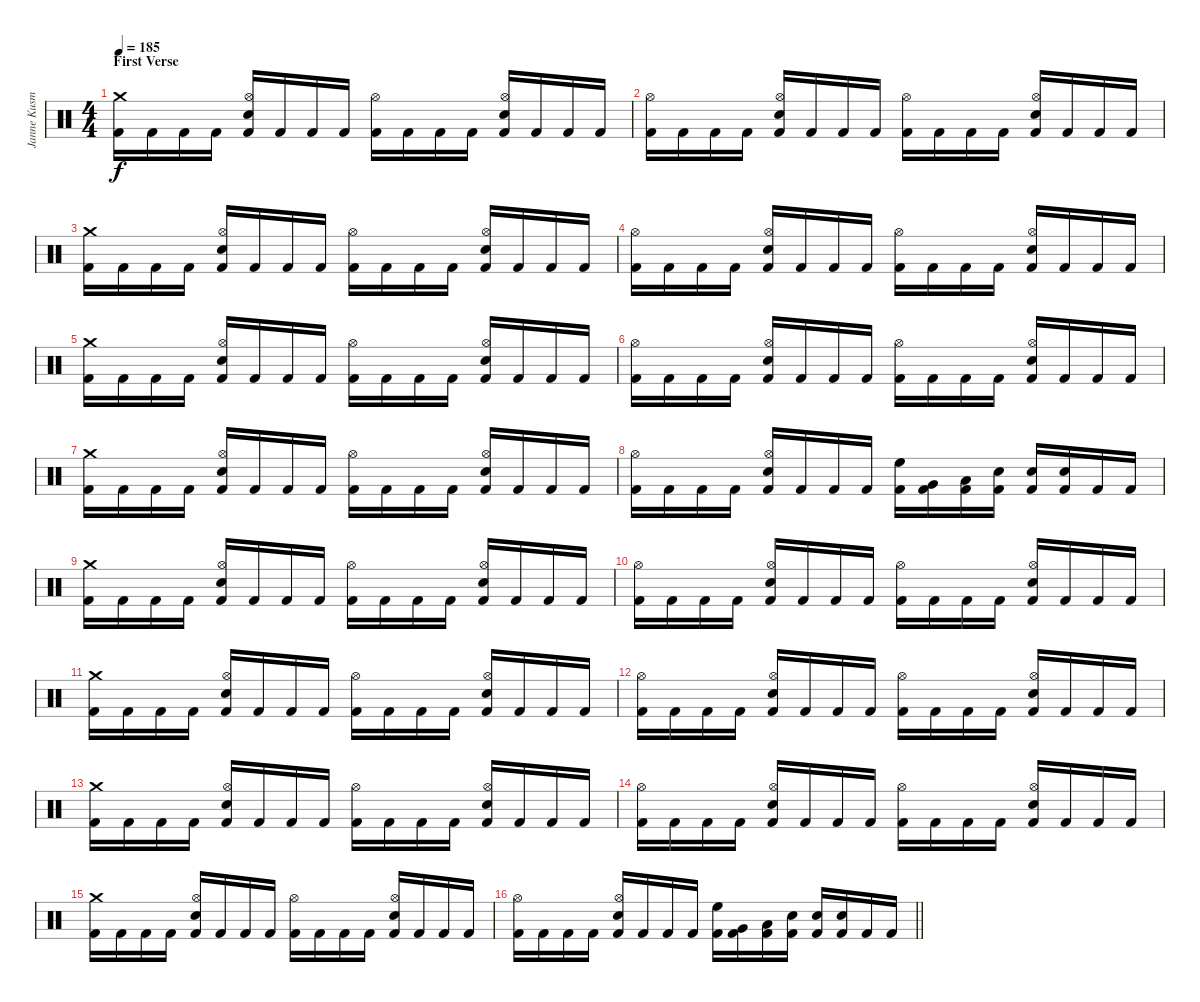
\track ("Janne Kusmin" "Janne Kusm") {instrument percussion}
\staff {score}
\articulation defaults
\ts (4 4)
\section ("" "First Verse")
\tempo 185
\clef neutral
\ks c
("Crash medium (hit)" "Kick (hit) 2").16{dy f} "Kick (hit) 2".16 "Kick (hit) 2".16 "Kick (hit) 2".16 ("Hi-Hat (open)" "Electric Snare (hit)" "Kick (hit) 2").16 "Kick (hit) 2".16 "Kick (hit) 2".16 "Kick (hit) 2".16 ("Hi-Hat (open)" "Kick (hit) 2").16 "Kick (hit) 2".16 "Kick (hit) 2".16 "Kick (hit) 2".16 ("Hi-Hat (open)" "Electric Snare (hit)" "Kick (hit) 2").16 "Kick (hit) 2".16 "Kick (hit) 2".16 "Kick (hit) 2".16 |
("Hi-Hat (open)" "Kick (hit) 2").16 "Kick (hit) 2".16 "Kick (hit) 2".16 "Kick (hit) 2".16 ("Hi-Hat (open)" "Electric Snare (hit)" "Kick (hit) 2").16 "Kick (hit) 2".16 "Kick (hit) 2".16 "Kick (hit) 2".16 ("Hi-Hat (open)" "Kick (hit) 2").16 "Kick (hit) 2".16 "Kick (hit) 2".16 "Kick (hit) 2".16 ("Hi-Hat (open)" "Electric Snare (hit)" "Kick (hit) 2").16 "Kick (hit) 2".16 "Kick (hit) 2".16 "Kick (hit) 2".16 |
("Crash medium (hit)" "Kick (hit) 2").16 "Kick (hit) 2".16 "Kick (hit) 2".16 "Kick (hit) 2".16 ("Hi-Hat (open)" "Electric Snare (hit)" "Kick (hit) 2").16 "Kick (hit) 2".16 "Kick (hit) 2".16 "Kick (hit) 2".16 ("Hi-Hat (open)" "Kick (hit) 2").16 "Kick (hit) 2".16 "Kick (hit) 2".16 "Kick (hit) 2".16 ("Hi-Hat (open)" "Electric Snare (hit)" "Kick (hit) 2").16 "Kick (hit) 2".16 "Kick (hit) 2".16 "Kick (hit) 2".16 |
("Hi-Hat (open)" "Kick (hit) 2").16 "Kick (hit) 2".16 "Kick (hit) 2".16 "Kick (hit) 2".16 ("Hi-Hat (open)" "Electric Snare (hit)" "Kick (hit) 2").16 "Kick (hit) 2".16 "Kick (hit) 2".16 "Kick (hit) 2".16 ("Hi-Hat (open)" "Kick (hit) 2").16 "Kick (hit) 2".16 "Kick (hit) 2".16 "Kick (hit) 2".16 ("Hi-Hat (open)" "Electric Snare (hit)" "Kick (hit) 2").16 "Kick (hit) 2".16 "Kick (hit) 2".16 "Kick (hit) 2".16 |
("Crash medium (hit)" "Kick (hit) 2").16 "Kick (hit) 2".16 "Kick (hit) 2".16 "Kick (hit) 2".16 ("Hi-Hat (open)" "Electric Snare (hit)" "Kick (hit) 2").16 "Kick (hit) 2".16 "Kick (hit) 2".16 "Kick (hit) 2".16 ("Hi-Hat (open)" "Kick (hit) 2").16 "Kick (hit) 2".16 "Kick (hit) 2".16 "Kick (hit) 2".16 ("Hi-Hat (open)" "Electric Snare (hit)" "Kick (hit) 2").16 "Kick (hit) 2".16 "Kick (hit) 2".16 "Kick (hit) 2".16 |
("Hi-Hat (open)" "Kick (hit) 2").16 "Kick (hit) 2".16 "Kick (hit) 2".16 "Kick (hit) 2".16 ("Hi-Hat (open)" "Electric Snare (hit)" "Kick (hit) 2").16 "Kick (hit) 2".16 "Kick (hit) 2".16 "Kick (hit) 2".16 ("Hi-Hat (open)" "Kick (hit) 2").16 "Kick (hit) 2".16 "Kick (hit) 2".16 "Kick (hit) 2".16 ("Hi-Hat (open)" "Electric Snare (hit)" "Kick (hit) 2").16 "Kick (hit) 2".16 "Kick (hit) 2".16 "Kick (hit) 2".16 |
("Crash medium (hit)" "Kick (hit) 2").16 "Kick (hit) 2".16 "Kick (hit) 2".16 "Kick (hit) 2".16 ("Hi-Hat (open)" "Electric Snare (hit)" "Kick (hit) 2").16 "Kick (hit) 2".16 "Kick (hit) 2".16 "Kick (hit) 2".16 ("Hi-Hat (open)" "Kick (hit) 2").16 "Kick (hit) 2".16 "Kick (hit) 2".16 "Kick (hit) 2".16 ("Hi-Hat (open)" "Electric Snare (hit)" "Kick (hit) 2").16 "Kick (hit) 2".16 "Kick (hit) 2".16 "Kick (hit) 2".16 |
("Hi-Hat (open)" "Kick (hit) 2").16 "Kick (hit) 2".16 "Kick (hit) 2".16 "Kick (hit) 2".16 ("Hi-Hat (open)" "Electric Snare (hit)" "Kick (hit) 2").16 "Kick (hit) 2".16 "Kick (hit) 2".16 "Kick (hit) 2".16 ("High Floor Tom (hit)" "Kick (hit) 2").16 ("Very Low Tom (hit)" "Kick (hit) 2").16 ("Low Floor Tom (hit)" "Kick (hit) 2").16 ("Electric Snare (hit)" "Kick (hit) 2").16 ("Electric Snare (hit)" "Kick (hit) 2").16 ("Electric Snare (hit)" "Kick (hit) 2").16 "Kick (hit) 2".16 "Kick (hit) 2".16 |
("Crash medium (hit)" "Kick (hit) 2").16 "Kick (hit) 2".16 "Kick (hit) 2".16 "Kick (hit) 2".16 ("Hi-Hat (open)" "Electric Snare (hit)" "Kick (hit) 2").16 "Kick (hit) 2".16 "Kick (hit) 2".16 "Kick (hit) 2".16 ("Hi-Hat (open)" "Kick (hit) 2").16 "Kick (hit) 2".16 "Kick (hit) 2".16 "Kick (hit) 2".16 ("Hi-Hat (open)" "Electric Snare (hit)" "Kick (hit) 2").16 "Kick (hit) 2".16 "Kick (hit) 2".16 "Kick (hit) 2".16 |
("Hi-Hat (open)" "Kick (hit) 2").16 "Kick (hit) 2".16 "Kick (hit) 2".16 "Kick (hit) 2".16 ("Hi-Hat (open)" "Electric Snare (hit)" "Kick (hit) 2").16 "Kick (hit) 2".16 "Kick (hit) 2".16 "Kick (hit) 2".16 ("Hi-Hat (open)" "Kick (hit) 2").16 "Kick (hit) 2".16 "Kick (hit) 2".16 "Kick (hit) 2".16 ("Hi-Hat (open)" "Electric Snare (hit)" "Kick (hit) 2").16 "Kick (hit) 2".16 "Kick (hit) 2".16 "Kick (hit) 2".16 |
("Crash medium (hit)" "Kick (hit) 2").16 "Kick (hit) 2".16 "Kick (hit) 2".16 "Kick (hit) 2".16 ("Hi-Hat (open)" "Electric Snare (hit)" "Kick (hit) 2").16 "Kick (hit) 2".16 "Kick (hit) 2".16 "Kick (hit) 2".16 ("Hi-Hat (open)" "Kick (hit) 2").16 "Kick (hit) 2".16 "Kick (hit) 2".16 "Kick (hit) 2".16 ("Hi-Hat (open)" "Electric Snare (hit)" "Kick (hit) 2").16 "Kick (hit) 2".16 "Kick (hit) 2".16 "Kick (hit) 2".16 |
("Hi-Hat (open)" "Kick (hit) 2").16 "Kick (hit) 2".16 "Kick (hit) 2".16 "Kick (hit) 2".16 ("Hi-Hat (open)" "Electric Snare (hit)" "Kick (hit) 2").16 "Kick (hit) 2".16 "Kick (hit) 2".16 "Kick (hit) 2".16 ("Hi-Hat (open)" "Kick (hit) 2").16 "Kick (hit) 2".16 "Kick (hit) 2".16 "Kick (hit) 2".16 ("Hi-Hat (open)" "Electric Snare (hit)" "Kick (hit) 2").16 "Kick (hit) 2".16 "Kick (hit) 2".16 "Kick (hit) 2".16 |
("Crash medium (hit)" "Kick (hit) 2").16 "Kick (hit) 2".16 "Kick (hit) 2".16 "Kick (hit) 2".16 ("Hi-Hat (open)" "Electric Snare (hit)" "Kick (hit) 2").16 "Kick (hit) 2".16 "Kick (hit) 2".16 "Kick (hit) 2".16 ("Hi-Hat (open)" "Kick (hit) 2").16 "Kick (hit) 2".16 "Kick (hit) 2".16 "Kick (hit) 2".16 ("Hi-Hat (open)" "Electric Snare (hit)" "Kick (hit) 2").16 "Kick (hit) 2".16 "Kick (hit) 2".16 "Kick (hit) 2".16 |
("Hi-Hat (open)" "Kick (hit) 2").16 "Kick (hit) 2".16 "Kick (hit) 2".16 "Kick (hit) 2".16 ("Hi-Hat (open)" "Electric Snare (hit)" "Kick (hit) 2").16 "Kick (hit) 2".16 "Kick (hit) 2".16 "Kick (hit) 2".16 ("Hi-Hat (open)" "Kick (hit) 2").16 "Kick (hit) 2".16 "Kick (hit) 2".16 "Kick (hit) 2".16 ("Hi-Hat (open)" "Electric Snare (hit)" "Kick (hit) 2").16 "Kick (hit) 2".16 "Kick (hit) 2".16 "Kick (hit) 2".16 |
("Crash medium (hit)" "Kick (hit) 2").16 "Kick (hit) 2".16 "Kick (hit) 2".16 "Kick (hit) 2".16 ("Hi-Hat (open)" "Electric Snare (hit)" "Kick (hit) 2").16 "Kick (hit) 2".16 "Kick (hit) 2".16 "Kick (hit) 2".16 ("Hi-Hat (open)" "Kick (hit) 2").16 "Kick (hit) 2".16 "Kick (hit) 2".16 "Kick (hit) 2".16 ("Hi-Hat (open)" "Electric Snare (hit)" "Kick (hit) 2").16 "Kick (hit) 2".16 "Kick (hit) 2".16 "Kick (hit) 2".16 |
\barLineRight lightlight
("Hi-Hat (open)" "Kick (hit) 2").16 "Kick (hit) 2".16 "Kick (hit) 2".16 "Kick (hit) 2".16 ("Hi-Hat (open)" "Electric Snare (hit)" "Kick (hit) 2").16 "Kick (hit) 2".16 "Kick (hit) 2".16 "Kick (hit) 2".16 ("High Floor Tom (hit)" "Kick (hit) 2").16 ("Very Low Tom (hit)" "Kick (hit) 2").16 ("Low Floor Tom (hit)" "Kick (hit) 2").16 ("Electric Snare (hit)" "Kick (hit) 2").16 ("Electric Snare (hit)" "Kick (hit) 2").16 ("Electric Snare (hit)" "Kick (hit) 2").16 "Kick (hit) 2".16 "Kick (hit) 2".16
